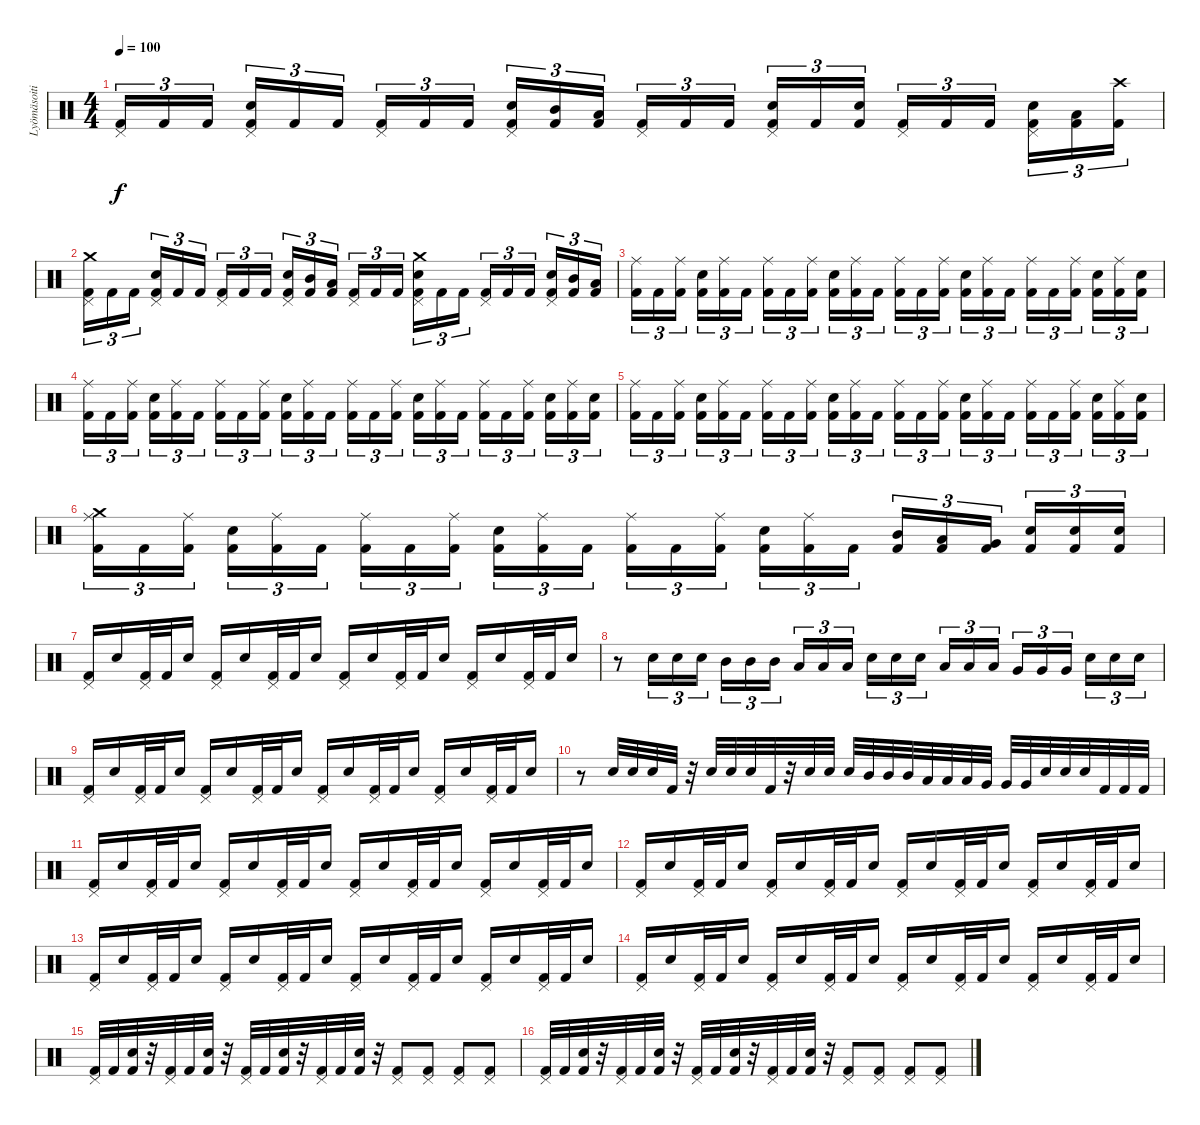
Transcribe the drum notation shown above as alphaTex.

\track ("Lyömäsoitin" "Lyömäsoiti") {instrument percussion}
\staff {score}
\articulation defaults
\ts (4 4)
\tempo 100
\clef neutral
\ks c
("Kick (hit) 2" "Pedal Hi-Hat (hit)").16{tu (3 2) dy f} "Kick (hit) 2".16{tu (3 2)} "Kick (hit) 2".16{tu (3 2)} ("Kick (hit) 2" "Electric Snare (hit)" "Pedal Hi-Hat (hit)").16{tu (3 2)} "Kick (hit) 2".16{tu (3 2)} "Kick (hit) 2".16{tu (3 2)} ("Kick (hit) 2" "Pedal Hi-Hat (hit)").16{tu (3 2)} "Kick (hit) 2".16{tu (3 2)} "Kick (hit) 2".16{tu (3 2)} ("Kick (hit) 2" "Electric Snare (hit)" "Pedal Hi-Hat (hit)").16{tu (3 2)} ("Kick (hit) 2" "Mid Tom (hit)").16{tu (3 2)} ("Kick (hit) 2" "Low Tom (hit)").16{tu (3 2)} ("Kick (hit) 2" "Pedal Hi-Hat (hit)").16{tu (3 2)} "Kick (hit) 2".16{tu (3 2)} "Kick (hit) 2".16{tu (3 2)} ("Kick (hit) 2" "Electric Snare (hit)" "Pedal Hi-Hat (hit)").16{tu (3 2)} "Kick (hit) 2".16{tu (3 2)} ("Kick (hit) 2" "Electric Snare (hit)").16{tu (3 2)} ("Kick (hit) 2" "Pedal Hi-Hat (hit)").16{tu (3 2)} "Kick (hit) 2".16{tu (3 2)} "Kick (hit) 2".16{tu (3 2)} ("Kick (hit) 2" "Electric Snare (hit)" "Pedal Hi-Hat (hit)").16{tu (3 2)} ("Kick (hit) 2" "Low Tom (hit)").16{tu (3 2)} ("Kick (hit) 2" "Crash high (hit)").16{tu (3 2)} |
("Kick (hit) 2" "Pedal Hi-Hat (hit)" "Crash medium (hit)").16{tu (3 2)} "Kick (hit) 2".16{tu (3 2)} "Kick (hit) 2".16{tu (3 2)} ("Kick (hit) 2" "Electric Snare (hit)" "Pedal Hi-Hat (hit)").16{tu (3 2)} "Kick (hit) 2".16{tu (3 2)} "Kick (hit) 2".16{tu (3 2)} ("Kick (hit) 2" "Pedal Hi-Hat (hit)").16{tu (3 2)} "Kick (hit) 2".16{tu (3 2)} "Kick (hit) 2".16{tu (3 2)} ("Kick (hit) 2" "Electric Snare (hit)" "Pedal Hi-Hat (hit)").16{tu (3 2)} ("Kick (hit) 2" "Mid Tom (hit)").16{tu (3 2)} ("Kick (hit) 2" "Low Tom (hit)").16{tu (3 2)} ("Kick (hit) 2" "Pedal Hi-Hat (hit)").16{tu (3 2)} "Kick (hit) 2".16{tu (3 2)} "Kick (hit) 2".16{tu (3 2)} ("Kick (hit) 2" "Electric Snare (hit)" "Pedal Hi-Hat (hit)" "Crash medium (hit)").16{tu (3 2)} "Kick (hit) 2".16{tu (3 2)} "Kick (hit) 2".16{tu (3 2)} ("Kick (hit) 2" "Pedal Hi-Hat (hit)").16{tu (3 2)} "Kick (hit) 2".16{tu (3 2)} "Kick (hit) 2".16{tu (3 2)} ("Kick (hit) 2" "Electric Snare (hit)" "Pedal Hi-Hat (hit)").16{tu (3 2)} ("Kick (hit) 2" "Mid Tom (hit)").16{tu (3 2)} ("Kick (hit) 2" "Low Tom (hit)").16{tu (3 2)} |
("Kick (hit) 2" "Ride (middle)").16{tu (3 2)} "Kick (hit) 2".16{tu (3 2)} ("Kick (hit) 2" "Ride (middle)").16{tu (3 2)} ("Kick (hit) 2" "Electric Snare (hit)").16{tu (3 2)} ("Kick (hit) 2" "Ride (middle)").16{tu (3 2)} "Kick (hit) 2".16{tu (3 2)} ("Kick (hit) 2" "Ride (middle)").16{tu (3 2)} "Kick (hit) 2".16{tu (3 2)} ("Kick (hit) 2" "Ride (middle)").16{tu (3 2)} ("Kick (hit) 2" "Electric Snare (hit)").16{tu (3 2)} ("Kick (hit) 2" "Ride (middle)").16{tu (3 2)} "Kick (hit) 2".16{tu (3 2)} ("Kick (hit) 2" "Ride (middle)").16{tu (3 2)} "Kick (hit) 2".16{tu (3 2)} ("Kick (hit) 2" "Ride (middle)").16{tu (3 2)} ("Kick (hit) 2" "Electric Snare (hit)").16{tu (3 2)} ("Kick (hit) 2" "Ride (middle)").16{tu (3 2)} "Kick (hit) 2".16{tu (3 2)} ("Kick (hit) 2" "Ride (middle)").16{tu (3 2)} "Kick (hit) 2".16{tu (3 2)} ("Kick (hit) 2" "Ride (middle)").16{tu (3 2)} ("Kick (hit) 2" "Electric Snare (hit)").16{tu (3 2)} ("Kick (hit) 2" "Ride (middle)").16{tu (3 2)} ("Kick (hit) 2" "Electric Snare (hit)").16{tu (3 2)} |
("Kick (hit) 2" "Ride (middle)").16{tu (3 2)} "Kick (hit) 2".16{tu (3 2)} ("Kick (hit) 2" "Ride (middle)").16{tu (3 2)} ("Kick (hit) 2" "Electric Snare (hit)").16{tu (3 2)} ("Kick (hit) 2" "Ride (middle)").16{tu (3 2)} "Kick (hit) 2".16{tu (3 2)} ("Kick (hit) 2" "Ride (middle)").16{tu (3 2)} "Kick (hit) 2".16{tu (3 2)} ("Kick (hit) 2" "Ride (middle)").16{tu (3 2)} ("Kick (hit) 2" "Electric Snare (hit)").16{tu (3 2)} ("Kick (hit) 2" "Ride (middle)").16{tu (3 2)} "Kick (hit) 2".16{tu (3 2)} ("Kick (hit) 2" "Ride (middle)").16{tu (3 2)} "Kick (hit) 2".16{tu (3 2)} ("Kick (hit) 2" "Ride (middle)").16{tu (3 2)} ("Kick (hit) 2" "Electric Snare (hit)").16{tu (3 2)} ("Kick (hit) 2" "Ride (middle)").16{tu (3 2)} "Kick (hit) 2".16{tu (3 2)} ("Kick (hit) 2" "Ride (middle)").16{tu (3 2)} "Kick (hit) 2".16{tu (3 2)} ("Kick (hit) 2" "Ride (middle)").16{tu (3 2)} ("Kick (hit) 2" "Electric Snare (hit)").16{tu (3 2)} ("Kick (hit) 2" "Ride (middle)").16{tu (3 2)} ("Kick (hit) 2" "Electric Snare (hit)").16{tu (3 2)} |
("Kick (hit) 2" "Ride (middle)").16{tu (3 2)} "Kick (hit) 2".16{tu (3 2)} ("Kick (hit) 2" "Ride (middle)").16{tu (3 2)} ("Kick (hit) 2" "Electric Snare (hit)").16{tu (3 2)} ("Kick (hit) 2" "Ride (middle)").16{tu (3 2)} "Kick (hit) 2".16{tu (3 2)} ("Kick (hit) 2" "Ride (middle)").16{tu (3 2)} "Kick (hit) 2".16{tu (3 2)} ("Kick (hit) 2" "Ride (middle)").16{tu (3 2)} ("Kick (hit) 2" "Electric Snare (hit)").16{tu (3 2)} ("Kick (hit) 2" "Ride (middle)").16{tu (3 2)} "Kick (hit) 2".16{tu (3 2)} ("Kick (hit) 2" "Ride (middle)").16{tu (3 2)} "Kick (hit) 2".16{tu (3 2)} ("Kick (hit) 2" "Ride (middle)").16{tu (3 2)} ("Kick (hit) 2" "Electric Snare (hit)").16{tu (3 2)} ("Kick (hit) 2" "Ride (middle)").16{tu (3 2)} "Kick (hit) 2".16{tu (3 2)} ("Kick (hit) 2" "Ride (middle)").16{tu (3 2)} "Kick (hit) 2".16{tu (3 2)} ("Kick (hit) 2" "Ride (middle)").16{tu (3 2)} ("Kick (hit) 2" "Electric Snare (hit)").16{tu (3 2)} ("Kick (hit) 2" "Ride (middle)").16{tu (3 2)} ("Kick (hit) 2" "Electric Snare (hit)").16{tu (3 2)} |
("Kick (hit) 2" "Ride (middle)" "Crash medium (hit)").16{tu (3 2)} "Kick (hit) 2".16{tu (3 2)} ("Kick (hit) 2" "Ride (middle)").16{tu (3 2)} ("Kick (hit) 2" "Electric Snare (hit)").16{tu (3 2)} ("Kick (hit) 2" "Ride (middle)").16{tu (3 2)} "Kick (hit) 2".16{tu (3 2)} ("Kick (hit) 2" "Ride (middle)").16{tu (3 2)} "Kick (hit) 2".16{tu (3 2)} ("Kick (hit) 2" "Ride (middle)").16{tu (3 2)} ("Kick (hit) 2" "Electric Snare (hit)").16{tu (3 2)} ("Kick (hit) 2" "Ride (middle)").16{tu (3 2)} "Kick (hit) 2".16{tu (3 2)} ("Kick (hit) 2" "Ride (middle)").16{tu (3 2)} "Kick (hit) 2".16{tu (3 2)} ("Kick (hit) 2" "Ride (middle)").16{tu (3 2)} ("Kick (hit) 2" "Electric Snare (hit)").16{tu (3 2)} ("Kick (hit) 2" "Ride (middle)").16{tu (3 2)} "Kick (hit) 2".16{tu (3 2)} ("Kick (hit) 2" "Mid Tom (hit)").16{tu (3 2)} ("Kick (hit) 2" "Low Tom (hit)").16{tu (3 2)} ("Kick (hit) 2" "Very Low Tom (hit)").16{tu (3 2)} ("Kick (hit) 2" "Electric Snare (hit)").16{tu (3 2)} ("Kick (hit) 2" "Electric Snare (hit)").16{tu (3 2)} ("Kick (hit) 2" "Electric Snare (hit)").16{tu (3 2)} |
("Kick (hit) 2" "Pedal Hi-Hat (hit)").16 "Electric Snare (hit)".16 ("Kick (hit) 2" "Pedal Hi-Hat (hit)").32 "Kick (hit) 2".32 "Electric Snare (hit)".16 ("Kick (hit) 2" "Pedal Hi-Hat (hit)").16 "Electric Snare (hit)".16 ("Kick (hit) 2" "Pedal Hi-Hat (hit)").32 "Kick (hit) 2".32 "Electric Snare (hit)".16 ("Kick (hit) 2" "Pedal Hi-Hat (hit)").16 "Electric Snare (hit)".16 ("Kick (hit) 2" "Pedal Hi-Hat (hit)").32 "Kick (hit) 2".32 "Electric Snare (hit)".16 ("Kick (hit) 2" "Pedal Hi-Hat (hit)").16 "Electric Snare (hit)".16 ("Kick (hit) 2" "Pedal Hi-Hat (hit)").32 "Kick (hit) 2".32 "Electric Snare (hit)".16 |
r.8 "Electric Snare (hit)".16{tu (3 2)} "Electric Snare (hit)".16{tu (3 2)} "Electric Snare (hit)".16{tu (3 2)} "Mid Tom (hit)".16{tu (3 2)} "Mid Tom (hit)".16{tu (3 2)} "Mid Tom (hit)".16{tu (3 2)} "Low Tom (hit)".16{tu (3 2)} "Low Tom (hit)".16{tu (3 2)} "Low Tom (hit)".16{tu (3 2)} "Electric Snare (hit)".16{tu (3 2)} "Electric Snare (hit)".16{tu (3 2)} "Electric Snare (hit)".16{tu (3 2)} "Low Tom (hit)".16{tu (3 2)} "Low Tom (hit)".16{tu (3 2)} "Low Tom (hit)".16{tu (3 2)} "Very Low Tom (hit)".16{tu (3 2)} "Very Low Tom (hit)".16{tu (3 2)} "Very Low Tom (hit)".16{tu (3 2)} "Electric Snare (hit)".16{tu (3 2)} "Electric Snare (hit)".16{tu (3 2)} "Electric Snare (hit)".16{tu (3 2)} |
("Kick (hit) 2" "Pedal Hi-Hat (hit)").16 "Electric Snare (hit)".16 ("Kick (hit) 2" "Pedal Hi-Hat (hit)").32 "Kick (hit) 2".32 "Electric Snare (hit)".16 ("Kick (hit) 2" "Pedal Hi-Hat (hit)").16 "Electric Snare (hit)".16 ("Kick (hit) 2" "Pedal Hi-Hat (hit)").32 "Kick (hit) 2".32 "Electric Snare (hit)".16 ("Kick (hit) 2" "Pedal Hi-Hat (hit)").16 "Electric Snare (hit)".16 ("Kick (hit) 2" "Pedal Hi-Hat (hit)").32 "Kick (hit) 2".32 "Electric Snare (hit)".16 ("Kick (hit) 2" "Pedal Hi-Hat (hit)").16 "Electric Snare (hit)".16 ("Kick (hit) 2" "Pedal Hi-Hat (hit)").32 "Kick (hit) 2".32 "Electric Snare (hit)".16 |
r.8 "Electric Snare (hit)".32 "Electric Snare (hit)".32 "Electric Snare (hit)".32 "Kick (hit) 2".32 r.32 "Electric Snare (hit)".32 "Electric Snare (hit)".32 "Electric Snare (hit)".32 "Kick (hit) 2".32 r.32 "Electric Snare (hit)".32 "Electric Snare (hit)".32 "Electric Snare (hit)".32 "Mid Tom (hit)".32 "Mid Tom (hit)".32 "Mid Tom (hit)".32 "Low Tom (hit)".32 "Low Tom (hit)".32 "Low Tom (hit)".32 "Very Low Tom (hit)".32 "Very Low Tom (hit)".32 "Very Low Tom (hit)".32 "Electric Snare (hit)".32 "Electric Snare (hit)".32 "Electric Snare (hit)".32 "Kick (hit) 2".32 "Kick (hit) 2".32 "Kick (hit) 2".32 |
("Kick (hit) 2" "Pedal Hi-Hat (hit)").16 "Electric Snare (hit)".16 ("Kick (hit) 2" "Pedal Hi-Hat (hit)").32 "Kick (hit) 2".32 "Electric Snare (hit)".16 ("Kick (hit) 2" "Pedal Hi-Hat (hit)").16 "Electric Snare (hit)".16 ("Kick (hit) 2" "Pedal Hi-Hat (hit)").32 "Kick (hit) 2".32 "Electric Snare (hit)".16 ("Kick (hit) 2" "Pedal Hi-Hat (hit)").16 "Electric Snare (hit)".16 ("Kick (hit) 2" "Pedal Hi-Hat (hit)").32 "Kick (hit) 2".32 "Electric Snare (hit)".16 ("Kick (hit) 2" "Pedal Hi-Hat (hit)").16 "Electric Snare (hit)".16 ("Kick (hit) 2" "Pedal Hi-Hat (hit)").32 "Kick (hit) 2".32 "Electric Snare (hit)".16 |
("Kick (hit) 2" "Pedal Hi-Hat (hit)").16 "Electric Snare (hit)".16 ("Kick (hit) 2" "Pedal Hi-Hat (hit)").32 "Kick (hit) 2".32 "Electric Snare (hit)".16 ("Kick (hit) 2" "Pedal Hi-Hat (hit)").16 "Electric Snare (hit)".16 ("Kick (hit) 2" "Pedal Hi-Hat (hit)").32 "Kick (hit) 2".32 "Electric Snare (hit)".16 ("Kick (hit) 2" "Pedal Hi-Hat (hit)").16 "Electric Snare (hit)".16 ("Kick (hit) 2" "Pedal Hi-Hat (hit)").32 "Kick (hit) 2".32 "Electric Snare (hit)".16 ("Kick (hit) 2" "Pedal Hi-Hat (hit)").16 "Electric Snare (hit)".16 ("Kick (hit) 2" "Pedal Hi-Hat (hit)").32 "Kick (hit) 2".32 "Electric Snare (hit)".16 |
("Kick (hit) 2" "Pedal Hi-Hat (hit)").16 "Electric Snare (hit)".16 ("Kick (hit) 2" "Pedal Hi-Hat (hit)").32 "Kick (hit) 2".32 "Electric Snare (hit)".16 ("Kick (hit) 2" "Pedal Hi-Hat (hit)").16 "Electric Snare (hit)".16 ("Kick (hit) 2" "Pedal Hi-Hat (hit)").32 "Kick (hit) 2".32 "Electric Snare (hit)".16 ("Kick (hit) 2" "Pedal Hi-Hat (hit)").16 "Electric Snare (hit)".16 ("Kick (hit) 2" "Pedal Hi-Hat (hit)").32 "Kick (hit) 2".32 "Electric Snare (hit)".16 ("Kick (hit) 2" "Pedal Hi-Hat (hit)").16 "Electric Snare (hit)".16 ("Kick (hit) 2" "Pedal Hi-Hat (hit)").32 "Kick (hit) 2".32 "Electric Snare (hit)".16 |
("Kick (hit) 2" "Pedal Hi-Hat (hit)").16 "Electric Snare (hit)".16 ("Kick (hit) 2" "Pedal Hi-Hat (hit)").32 "Kick (hit) 2".32 "Electric Snare (hit)".16 ("Kick (hit) 2" "Pedal Hi-Hat (hit)").16 "Electric Snare (hit)".16 ("Kick (hit) 2" "Pedal Hi-Hat (hit)").32 "Kick (hit) 2".32 "Electric Snare (hit)".16 ("Kick (hit) 2" "Pedal Hi-Hat (hit)").16 "Electric Snare (hit)".16 ("Kick (hit) 2" "Pedal Hi-Hat (hit)").32 "Kick (hit) 2".32 "Electric Snare (hit)".16 ("Kick (hit) 2" "Pedal Hi-Hat (hit)").16 "Electric Snare (hit)".16 ("Kick (hit) 2" "Pedal Hi-Hat (hit)").32 "Kick (hit) 2".32 "Electric Snare (hit)".16 |
("Kick (hit) 2" "Pedal Hi-Hat (hit)").32 "Kick (hit) 2".32 ("Kick (hit) 2" "Electric Snare (hit)").32 r.32 ("Kick (hit) 2" "Pedal Hi-Hat (hit)").32 "Kick (hit) 2".32 ("Kick (hit) 2" "Electric Snare (hit)").32 r.32 ("Kick (hit) 2" "Pedal Hi-Hat (hit)").32 "Kick (hit) 2".32 ("Kick (hit) 2" "Electric Snare (hit)").32 r.32 ("Kick (hit) 2" "Pedal Hi-Hat (hit)").32 "Kick (hit) 2".32 ("Kick (hit) 2" "Electric Snare (hit)").32 r.32 ("Kick (hit) 2" "Pedal Hi-Hat (hit)").8 ("Kick (hit) 2" "Pedal Hi-Hat (hit)").8 ("Kick (hit) 2" "Pedal Hi-Hat (hit)").8 ("Kick (hit) 2" "Pedal Hi-Hat (hit)").8 |
("Kick (hit) 2" "Pedal Hi-Hat (hit)").32 "Kick (hit) 2".32 ("Kick (hit) 2" "Electric Snare (hit)").32 r.32 ("Kick (hit) 2" "Pedal Hi-Hat (hit)").32 "Kick (hit) 2".32 ("Kick (hit) 2" "Electric Snare (hit)").32 r.32 ("Kick (hit) 2" "Pedal Hi-Hat (hit)").32 "Kick (hit) 2".32 ("Kick (hit) 2" "Electric Snare (hit)").32 r.32 ("Kick (hit) 2" "Pedal Hi-Hat (hit)").32 "Kick (hit) 2".32 ("Kick (hit) 2" "Electric Snare (hit)").32 r.32 ("Kick (hit) 2" "Pedal Hi-Hat (hit)").8 ("Kick (hit) 2" "Pedal Hi-Hat (hit)").8 ("Kick (hit) 2" "Pedal Hi-Hat (hit)").8 ("Kick (hit) 2" "Pedal Hi-Hat (hit)").8
